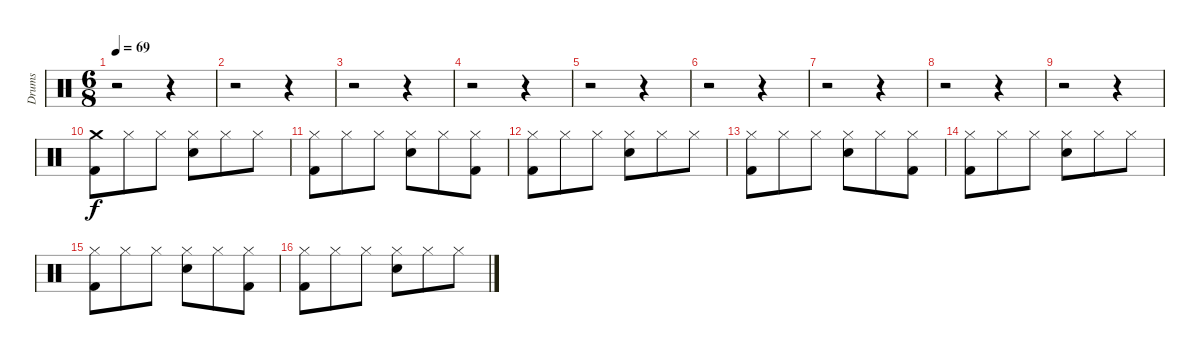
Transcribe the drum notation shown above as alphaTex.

\track ("Drums" "Drums") {instrument percussion}
\staff {score}
\articulation defaults
\ts (6 8)
\tempo 69
\clef neutral
\ks c
r.2{dy f} r.4 |
r.2 r.4 |
r.2 r.4 |
r.2 r.4 |
r.2 r.4 |
r.2 r.4 |
r.2 r.4 |
r.2 r.4 |
r.2 r.4 |
("Crash medium (hit)" "Kick (hit) 2").8 "Hi-Hat (closed)".8 "Hi-Hat (closed)".8 ("Hi-Hat (closed)" "Snare (hit) 2").8 "Hi-Hat (closed)".8 "Hi-Hat (closed)".8 |
("Hi-Hat (closed)" "Kick (hit) 2").8 "Hi-Hat (closed)".8 "Hi-Hat (closed)".8 ("Hi-Hat (closed)" "Snare (hit) 2").8 "Hi-Hat (closed)".8 ("Hi-Hat (closed)" "Kick (hit) 2").8 |
("Hi-Hat (closed)" "Kick (hit) 2").8 "Hi-Hat (closed)".8 "Hi-Hat (closed)".8 ("Hi-Hat (closed)" "Snare (hit) 2").8 "Hi-Hat (closed)".8 "Hi-Hat (closed)".8 |
("Hi-Hat (closed)" "Kick (hit) 2").8 "Hi-Hat (closed)".8 "Hi-Hat (closed)".8 ("Hi-Hat (closed)" "Snare (hit) 2").8 "Hi-Hat (closed)".8 ("Hi-Hat (closed)" "Kick (hit) 2").8 |
("Hi-Hat (closed)" "Kick (hit) 2").8 "Hi-Hat (closed)".8 "Hi-Hat (closed)".8 ("Hi-Hat (closed)" "Snare (hit) 2").8 "Hi-Hat (closed)".8 "Hi-Hat (closed)".8 |
("Hi-Hat (closed)" "Kick (hit) 2").8 "Hi-Hat (closed)".8 "Hi-Hat (closed)".8 ("Hi-Hat (closed)" "Snare (hit) 2").8 "Hi-Hat (closed)".8 ("Hi-Hat (closed)" "Kick (hit) 2").8 |
("Hi-Hat (closed)" "Kick (hit) 2").8 "Hi-Hat (closed)".8 "Hi-Hat (closed)".8 ("Hi-Hat (closed)" "Snare (hit) 2").8 "Hi-Hat (closed)".8 "Hi-Hat (closed)".8
